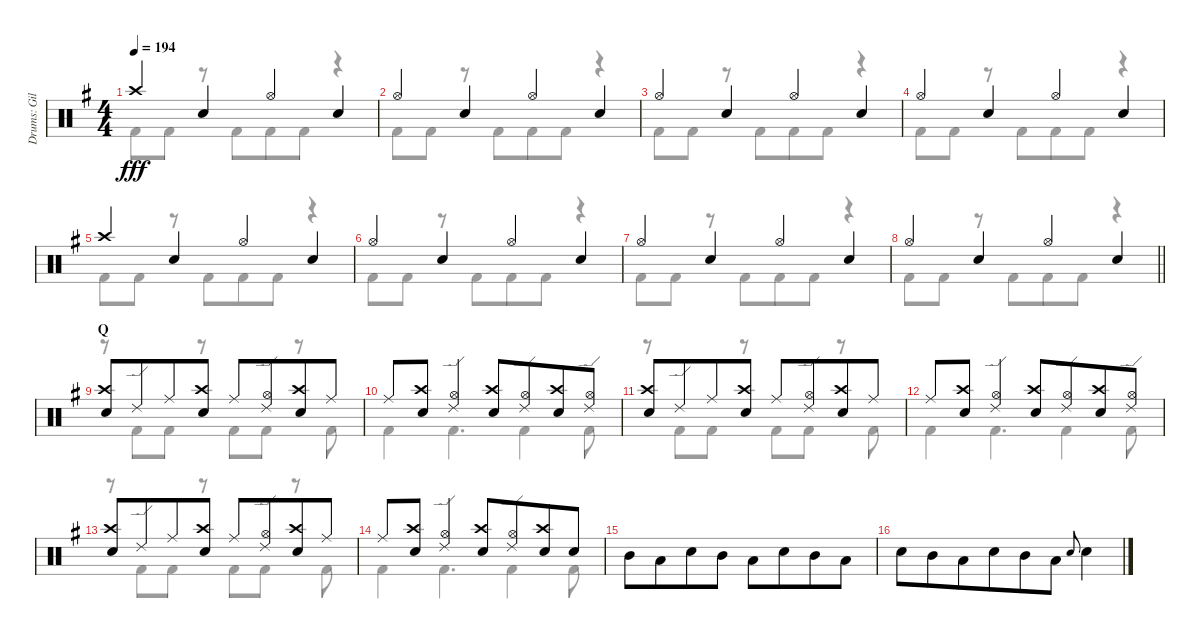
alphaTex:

\track ("Drums: Gil" "Drums: Gil") {instrument percussion}
\staff {score}
\articulation defaults
\voice
\ts (4 4)
\tempo 194
\clef neutral
\ks g "Crash high (hit)".4{dy fff} "Snare (hit) 2".4 "Hi-Hat (open)".4 "Snare (hit) 2".4
|
"Hi-Hat (open)".4 "Snare (hit) 2".4 "Hi-Hat (open)".4 "Snare (hit) 2".4 |
"Hi-Hat (open)".4 "Snare (hit) 2".4 "Hi-Hat (open)".4 "Snare (hit) 2".4 |
"Hi-Hat (open)".4 "Snare (hit) 2".4 "Hi-Hat (open)".4 "Snare (hit) 2".4 |
"Crash high (hit)".4 "Snare (hit) 2".4 "Hi-Hat (open)".4 "Snare (hit) 2".4 |
"Hi-Hat (open)".4 "Snare (hit) 2".4 "Hi-Hat (open)".4 "Snare (hit) 2".4 |
"Hi-Hat (open)".4 "Snare (hit) 2".4 "Hi-Hat (open)".4 "Snare (hit) 2".4 |
\barLineRight lightlight "Hi-Hat (open)".4 "Snare (hit) 2".4 "Hi-Hat (open)".4 "Snare (hit) 2".4
|
\section ("" "Q")
("Crash high (hit)" "Snare (hit) 2").8 "Ride (edge) 2".8{beam merge} "Ride (middle)".8 ("Crash high (hit)" "Snare (hit) 2").8 "Ride (middle)".8 ("Ride (edge) 2" "Hi-Hat (open)").8{beam merge} ("Crash high (hit)" "Snare (hit) 2").8 "Ride (middle)".8 |
"Ride (middle)".8 ("Crash high (hit)" "Snare (hit) 2").8{beam merge} ("Ride (edge) 2" "Hi-Hat (open)").4 ("Crash high (hit)" "Snare (hit) 2").8 ("Ride (edge) 2" "Hi-Hat (open)").8{beam merge} ("Crash high (hit)" "Snare (hit) 2").8 ("Ride (edge) 2" "Hi-Hat (open)").8 |
("Crash high (hit)" "Snare (hit) 2").8 "Ride (edge) 2".8{beam merge} "Ride (middle)".8 ("Crash high (hit)" "Snare (hit) 2").8 "Ride (middle)".8 ("Ride (edge) 2" "Hi-Hat (open)").8{beam merge} ("Crash high (hit)" "Snare (hit) 2").8 "Ride (middle)".8 |
"Ride (middle)".8 ("Crash high (hit)" "Snare (hit) 2").8{beam merge} ("Ride (edge) 2" "Hi-Hat (open)").4 ("Crash high (hit)" "Snare (hit) 2").8 ("Ride (edge) 2" "Hi-Hat (open)").8{beam merge} ("Crash high (hit)" "Snare (hit) 2").8 ("Ride (edge) 2" "Hi-Hat (open)").8 |
("Crash high (hit)" "Snare (hit) 2").8 "Ride (edge) 2".8{beam merge} "Ride (middle)".8 ("Crash high (hit)" "Snare (hit) 2").8 "Ride (middle)".8 ("Ride (edge) 2" "Hi-Hat (open)").8{beam merge} ("Crash high (hit)" "Snare (hit) 2").8 "Ride (middle)".8 |
"Ride (middle)".8 ("Crash high (hit)" "Snare (hit) 2").8{beam merge} ("Ride (edge) 2" "Hi-Hat (open)").4 ("Crash high (hit)" "Snare (hit) 2").8 ("Ride (edge) 2" "Hi-Hat (open)").8{beam merge} ("Crash high (hit)" "Snare (hit) 2").8 "Snare (hit) 2".8 |
"Mid Tom (hit)".8 "Low Tom (hit)".8{beam merge} "Snare (hit) 2".8 "Mid Tom (hit)".8 "Low Tom (hit)".8 "Snare (hit) 2".8{beam merge} "Mid Tom (hit)".8 "Low Tom (hit)".8 |
"Snare (hit) 2".8{beam merge} "Mid Tom (hit)".8{beam merge} "Low Tom (hit)".8 "Snare (hit) 2".8{beam merge} "Mid Tom (hit)".8 "Low Tom (hit)".8 "Electric Snare (hit)".8{gr onbeat} "Snare (hit) 2".4
\voice
\clef neutral
\ottava regular
\simile none
\ks g "Kick (hit) 2".8{dy fff} "Kick (hit) 2".8
r.8 "Kick (hit) 2".8{beam merge} "Kick (hit) 2".8 "Kick (hit) 2".8 r.4 |
"Kick (hit) 2".8 "Kick (hit) 2".8 r.8 "Kick (hit) 2".8{beam merge} "Kick (hit) 2".8 "Kick (hit) 2".8 r.4 |
"Kick (hit) 2".8 "Kick (hit) 2".8 r.8 "Kick (hit) 2".8{beam merge} "Kick (hit) 2".8 "Kick (hit) 2".8 r.4 |
"Kick (hit) 2".8 "Kick (hit) 2".8 r.8 "Kick (hit) 2".8{beam merge} "Kick (hit) 2".8 "Kick (hit) 2".8 r.4 |
"Kick (hit) 2".8 "Kick (hit) 2".8 r.8 "Kick (hit) 2".8{beam merge} "Kick (hit) 2".8 "Kick (hit) 2".8 r.4 |
"Kick (hit) 2".8 "Kick (hit) 2".8 r.8 "Kick (hit) 2".8{beam merge} "Kick (hit) 2".8 "Kick (hit) 2".8 r.4 |
"Kick (hit) 2".8 "Kick (hit) 2".8 r.8 "Kick (hit) 2".8{beam merge} "Kick (hit) 2".8 "Kick (hit) 2".8 r.4 |
\barLineRight lightlight "Kick (hit) 2".8 "Kick (hit) 2".8
r.8 "Kick (hit) 2".8{beam merge} "Kick (hit) 2".8 "Kick (hit) 2".8 r.4 |
r.8 "Kick (hit) 2".8{beam merge} "Kick (hit) 2".8 r.8 "Kick (hit) 2".8 "Kick (hit) 2".8 r.8 "Kick (hit) 2".8 |
"Kick (hit) 2".4 "Kick (hit) 2".4{d} "Kick (hit) 2".4 "Kick (hit) 2".8 |
r.8 "Kick (hit) 2".8{beam merge} "Kick (hit) 2".8 r.8 "Kick (hit) 2".8 "Kick (hit) 2".8 r.8 "Kick (hit) 2".8 |
"Kick (hit) 2".4 "Kick (hit) 2".4{d} "Kick (hit) 2".4 "Kick (hit) 2".8 |
r.8 "Kick (hit) 2".8{beam merge} "Kick (hit) 2".8 r.8 "Kick (hit) 2".8 "Kick (hit) 2".8 r.8 "Kick (hit) 2".8 |
"Kick (hit) 2".4 "Kick (hit) 2".4{d} "Kick (hit) 2".4 "Kick (hit) 2".8 |
|
